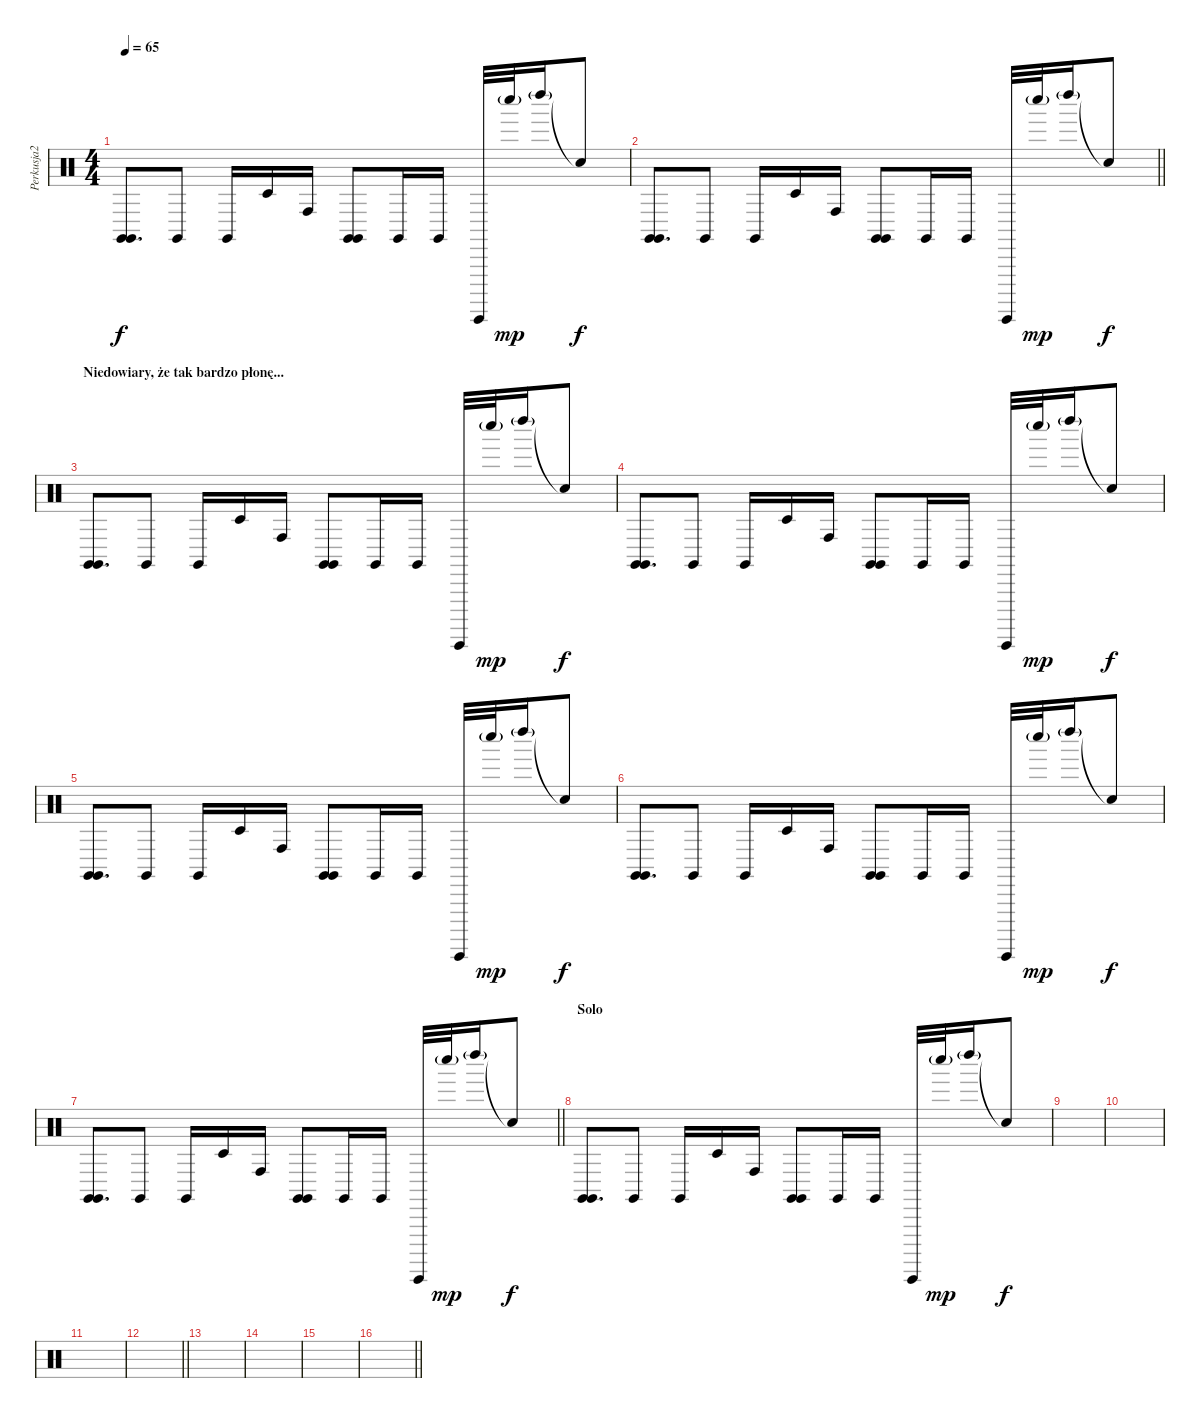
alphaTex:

\track ("Perkusja2" "Perkusja2") {instrument percussion}
\staff {score}
\articulation defaults
\ts (4 4)
\tempo 65
\clef neutral
\ks c
("Claves (hit)" "Claves (hit)").8{d dy f} "Claves (hit)".8 "Claves (hit)".16 "Timbale low (hit)".16 "Conga high (hit)".16 ("Claves (hit)" "Claves (hit)").8 "Claves (hit)".16 "Claves (hit)".16 "Guiro (hit)".32 "Whistle low (hit)"{g}.32{dy mp} "Left Maraca (hit)"{g}.16 "Snare (hit)"{t}.8{dy f} |
\barLineRight lightlight
("Claves (hit)" "Claves (hit)").8{d} "Claves (hit)".8 "Claves (hit)".16 "Timbale low (hit)".16 "Conga high (hit)".16 ("Claves (hit)" "Claves (hit)").8 "Claves (hit)".16 "Claves (hit)".16 "Guiro (hit)".32 "Whistle low (hit)"{g}.32{dy mp} "Left Maraca (hit)"{g}.16 "Snare (hit)"{t}.8{dy f} |
\section ("" "Niedowiary, że tak bardzo płonę...")
("Claves (hit)" "Claves (hit)").8{d} "Claves (hit)".8 "Claves (hit)".16 "Timbale low (hit)".16 "Conga high (hit)".16 ("Claves (hit)" "Claves (hit)").8 "Claves (hit)".16 "Claves (hit)".16 "Guiro (hit)".32 "Whistle low (hit)"{g}.32{dy mp} "Left Maraca (hit)"{g}.16 "Snare (hit)"{t}.8{dy f} |
("Claves (hit)" "Claves (hit)").8{d} "Claves (hit)".8 "Claves (hit)".16 "Timbale low (hit)".16 "Conga high (hit)".16 ("Claves (hit)" "Claves (hit)").8 "Claves (hit)".16 "Claves (hit)".16 "Guiro (hit)".32 "Whistle low (hit)"{g}.32{dy mp} "Left Maraca (hit)"{g}.16 "Snare (hit)"{t}.8{dy f} |
("Claves (hit)" "Claves (hit)").8{d} "Claves (hit)".8 "Claves (hit)".16 "Timbale low (hit)".16 "Conga high (hit)".16 ("Claves (hit)" "Claves (hit)").8 "Claves (hit)".16 "Claves (hit)".16 "Guiro (hit)".32 "Whistle low (hit)"{g}.32{dy mp} "Left Maraca (hit)"{g}.16 "Snare (hit)"{t}.8{dy f} |
("Claves (hit)" "Claves (hit)").8{d} "Claves (hit)".8 "Claves (hit)".16 "Timbale low (hit)".16 "Conga high (hit)".16 ("Claves (hit)" "Claves (hit)").8 "Claves (hit)".16 "Claves (hit)".16 "Guiro (hit)".32 "Whistle low (hit)"{g}.32{dy mp} "Left Maraca (hit)"{g}.16 "Snare (hit)"{t}.8{dy f} |
\barLineRight lightlight
("Claves (hit)" "Claves (hit)").8{d} "Claves (hit)".8 "Claves (hit)".16 "Timbale low (hit)".16 "Conga high (hit)".16 ("Claves (hit)" "Claves (hit)").8 "Claves (hit)".16 "Claves (hit)".16 "Guiro (hit)".32 "Whistle low (hit)"{g}.32{dy mp} "Left Maraca (hit)"{g}.16 "Snare (hit)"{t}.8{dy f} |
\section ("" "Solo")
("Claves (hit)" "Claves (hit)").8{d} "Claves (hit)".8 "Claves (hit)".16 "Timbale low (hit)".16 "Conga high (hit)".16 ("Claves (hit)" "Claves (hit)").8 "Claves (hit)".16 "Claves (hit)".16 "Guiro (hit)".32 "Whistle low (hit)"{g}.32{dy mp} "Left Maraca (hit)"{g}.16 "Snare (hit)"{t}.8{dy f} |
|
|
|
\barLineRight lightlight
|
|
|
|
\barLineRight lightlight
